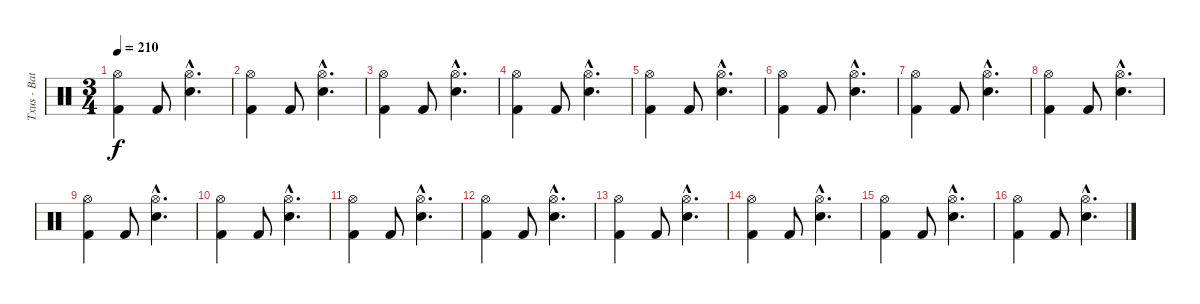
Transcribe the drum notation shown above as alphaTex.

\track ("Txus - Batería" "Txus - Bat") {instrument percussion}
\staff {score}
\articulation defaults
\ts (3 4)
\tempo 210
\clef neutral
\ks c
("Hi-Hat (open)" "Kick (hit) 2").4{dy f} "Kick (hit) 2".8 ("Hi-Hat (open)"{hac} "Electric Snare (hit)"{hac}).4{d} |
("Hi-Hat (open)" "Kick (hit) 2").4 "Kick (hit) 2".8 ("Hi-Hat (open)"{hac} "Electric Snare (hit)"{hac}).4{d} |
("Hi-Hat (open)" "Kick (hit) 2").4 "Kick (hit) 2".8 ("Hi-Hat (open)"{hac} "Electric Snare (hit)"{hac}).4{d} |
("Hi-Hat (open)" "Kick (hit) 2").4 "Kick (hit) 2".8 ("Hi-Hat (open)"{hac} "Electric Snare (hit)"{hac}).4{d} |
("Hi-Hat (open)" "Kick (hit) 2").4 "Kick (hit) 2".8 ("Hi-Hat (open)"{hac} "Electric Snare (hit)"{hac}).4{d} |
("Hi-Hat (open)" "Kick (hit) 2").4 "Kick (hit) 2".8 ("Hi-Hat (open)"{hac} "Electric Snare (hit)"{hac}).4{d} |
("Hi-Hat (open)" "Kick (hit) 2").4 "Kick (hit) 2".8 ("Hi-Hat (open)"{hac} "Electric Snare (hit)"{hac}).4{d} |
("Hi-Hat (open)" "Kick (hit) 2").4 "Kick (hit) 2".8 ("Hi-Hat (open)"{hac} "Electric Snare (hit)"{hac}).4{d} |
("Hi-Hat (open)" "Kick (hit) 2").4 "Kick (hit) 2".8 ("Hi-Hat (open)"{hac} "Electric Snare (hit)"{hac}).4{d} |
("Hi-Hat (open)" "Kick (hit) 2").4 "Kick (hit) 2".8 ("Hi-Hat (open)"{hac} "Electric Snare (hit)"{hac}).4{d} |
("Hi-Hat (open)" "Kick (hit) 2").4 "Kick (hit) 2".8 ("Hi-Hat (open)"{hac} "Electric Snare (hit)"{hac}).4{d} |
("Hi-Hat (open)" "Kick (hit) 2").4 "Kick (hit) 2".8 ("Hi-Hat (open)"{hac} "Electric Snare (hit)"{hac}).4{d} |
("Hi-Hat (open)" "Kick (hit) 2").4 "Kick (hit) 2".8 ("Hi-Hat (open)"{hac} "Electric Snare (hit)"{hac}).4{d} |
("Hi-Hat (open)" "Kick (hit) 2").4 "Kick (hit) 2".8 ("Hi-Hat (open)"{hac} "Electric Snare (hit)"{hac}).4{d} |
("Hi-Hat (open)" "Kick (hit) 2").4 "Kick (hit) 2".8 ("Hi-Hat (open)"{hac} "Electric Snare (hit)"{hac}).4{d} |
("Hi-Hat (open)" "Kick (hit) 2").4 "Kick (hit) 2".8 ("Hi-Hat (open)"{hac} "Electric Snare (hit)"{hac}).4{d}
